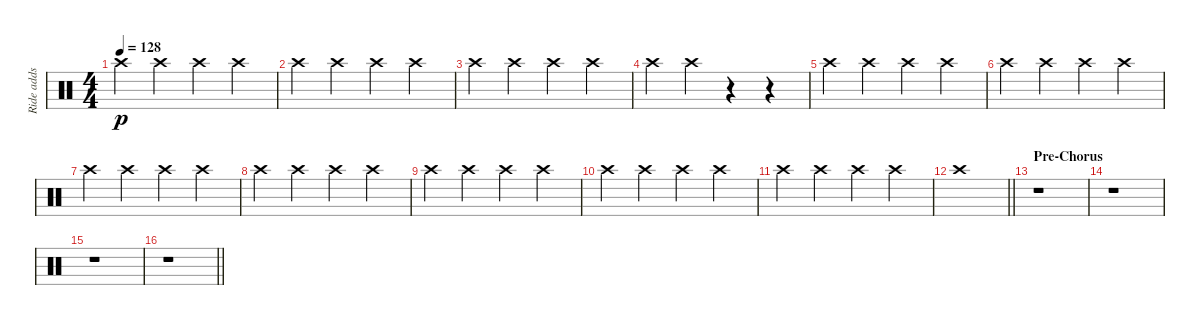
\track ("Ride adds" "Ride adds") {instrument percussion}
\staff {score}
\articulation defaults
\ts (4 4)
\tempo 128
\clef neutral
\ks c "Crash high (hit)".4{dy p} "Crash high (hit)".4 "Crash high (hit)".4 "Crash high (hit)".4
|
"Crash high (hit)".4 "Crash high (hit)".4 "Crash high (hit)".4 "Crash high (hit)".4 |
"Crash high (hit)".4 "Crash high (hit)".4 "Crash high (hit)".4 "Crash high (hit)".4 |
"Crash high (hit)".4 "Crash high (hit)".4 r.4 r.4 |
"Crash high (hit)".4 "Crash high (hit)".4 "Crash high (hit)".4 "Crash high (hit)".4 |
"Crash high (hit)".4 "Crash high (hit)".4 "Crash high (hit)".4 "Crash high (hit)".4 |
"Crash high (hit)".4 "Crash high (hit)".4 "Crash high (hit)".4 "Crash high (hit)".4 |
"Crash high (hit)".4 "Crash high (hit)".4 "Crash high (hit)".4 "Crash high (hit)".4 |
"Crash high (hit)".4 "Crash high (hit)".4 "Crash high (hit)".4 "Crash high (hit)".4 |
"Crash high (hit)".4 "Crash high (hit)".4 "Crash high (hit)".4 "Crash high (hit)".4 |
"Crash high (hit)".4 "Crash high (hit)".4 "Crash high (hit)".4 "Crash high (hit)".4 |
\barLineRight lightlight "Crash high (hit)".1
|
\section ("" "Pre-Chorus")
r.1 |
r.1 |
r.1 |
\barLineRight lightlight
r.1
